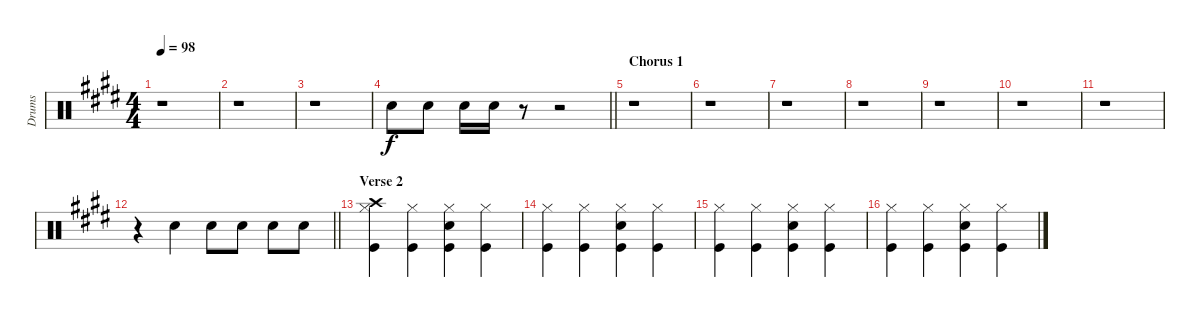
\track ("Drums" "Drums") {instrument percussion}
\staff {score}
\articulation defaults
\ts (4 4)
\tempo 98
\clef neutral
\ks c#minor
r.1{dy f} |
r.1 |
r.1 |
\barLineRight lightlight "Snare (hit) 2".8 "Snare (hit) 2".8 "Snare (hit) 2".16 "Snare (hit) 2".16
r.8 r.2 |
\section ("" "Chorus 1")
r.1 |
r.1 |
r.1 |
r.1 |
r.1 |
r.1 |
r.1 |
\barLineRight lightlight
r.4 "Snare (hit) 2".4 "Snare (hit) 2".8 "Snare (hit) 2".8 "Snare (hit) 2".8 "Snare (hit) 2".8 |
\section ("" "Verse 2")
("Kick (hit)" "Crash high (hit)" "Hi-Hat (closed)").4 ("Kick (hit)" "Hi-Hat (closed)").4 ("Kick (hit)" "Snare (hit) 2" "Hi-Hat (closed)").4 ("Kick (hit)" "Hi-Hat (closed)").4 |
("Kick (hit)" "Hi-Hat (closed)").4 ("Kick (hit)" "Hi-Hat (closed)").4 ("Kick (hit)" "Snare (hit) 2" "Hi-Hat (closed)").4 ("Kick (hit)" "Hi-Hat (closed)").4 |
("Kick (hit)" "Hi-Hat (closed)").4 ("Kick (hit)" "Hi-Hat (closed)").4 ("Kick (hit)" "Snare (hit) 2" "Hi-Hat (closed)").4 ("Kick (hit)" "Hi-Hat (closed)").4 |
("Kick (hit)" "Hi-Hat (closed)").4 ("Kick (hit)" "Hi-Hat (closed)").4 ("Kick (hit)" "Snare (hit) 2" "Hi-Hat (closed)").4 ("Kick (hit)" "Hi-Hat (closed)").4
